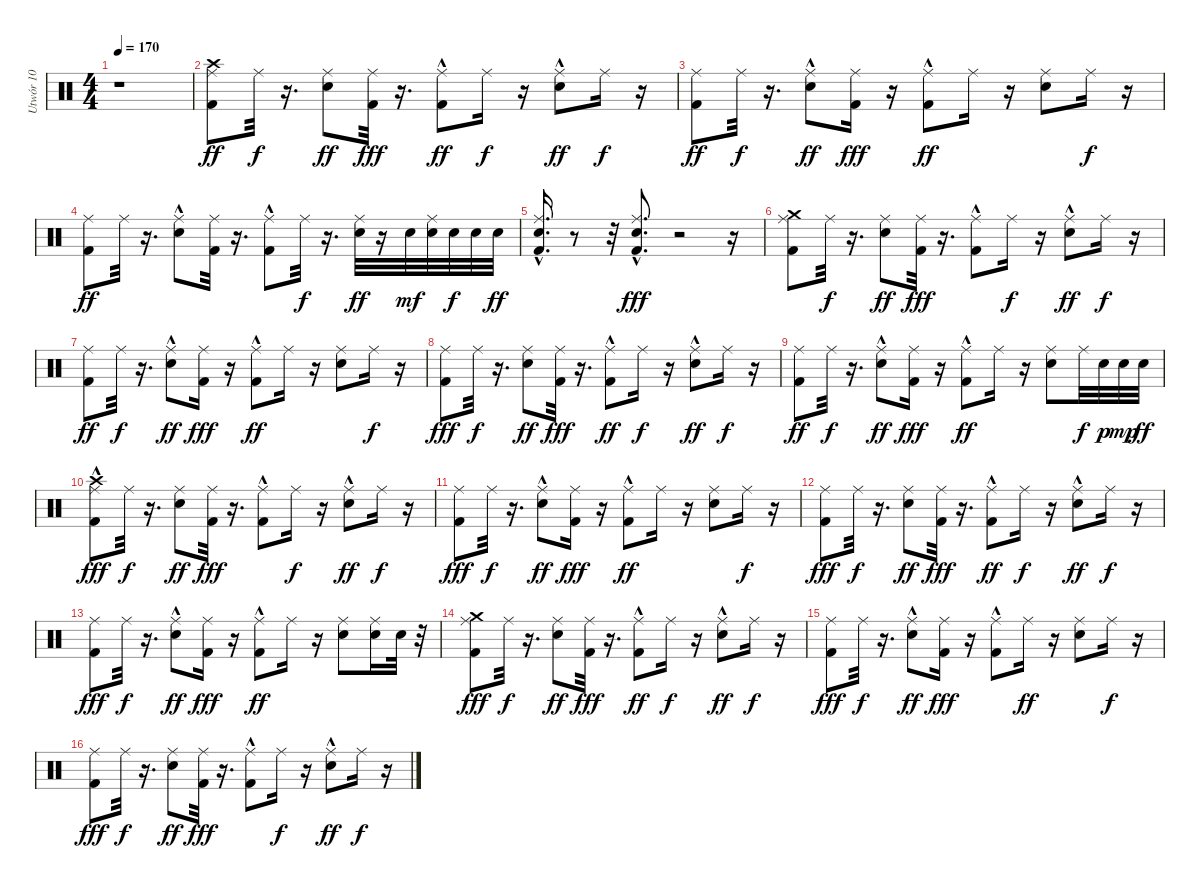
\track ("Utwór 10" "Utwór 10") {instrument percussion}
\staff {score}
\articulation defaults
\ts (4 4)
\tempo 170
\clef neutral
\ks c
r.1{dy ff} |
("Kick (hit) 2" "Crash high (hit)" "Ride (middle)").8 "Ride (middle)".32{dy f} r.16{d} ("Snare (hit) 2" "Ride (middle)").8{dy ff} ("Kick (hit) 2" "Ride (middle)").32{dy fff} r.16{d} ("Kick (hit) 2"{hac} "Ride (middle)").8{dy ff} "Ride (middle)".16{dy f} r.16 ("Ride (middle)" "Snare (hit) 2"{hac}).8{dy ff} "Ride (middle)".16{dy f} r.16 |
("Kick (hit) 2" "Ride (middle)").8{dy ff} "Ride (middle)".32{dy f} r.16{d} ("Snare (hit) 2"{hac} "Ride (middle)").8{dy ff} ("Kick (hit) 2" "Ride (middle)").16{dy fff} r.16 ("Kick (hit) 2"{hac} "Ride (middle)").8{dy ff} "Ride (middle)".16 r.16 ("Snare (hit) 2" "Ride (middle)").8 "Ride (middle)".16{dy f} r.16 |
("Kick (hit) 2" "Ride (middle)").8{dy ff} "Ride (middle)".32 r.16{d} ("Ride (middle)" "Snare (hit) 2"{hac}).8 ("Kick (hit) 2" "Ride (middle)").32 r.16{d} ("Kick (hit) 2"{hac} "Ride (middle)").8 "Ride (middle)".32{dy f} r.16{d} ("Snare (hit) 2" "Ride (middle)").32{dy ff} r.16 "Snare (hit) 2".32{dy mf} ("Snare (hit) 2" "Ride (middle)").32 "Snare (hit) 2".32{dy f} "Snare (hit) 2".32 "Snare (hit) 2".32{dy ff} |
("Kick (hit) 2"{hac} "Ride (middle)" "Snare (hit) 2").16{d} r.8 r.32 ("Ride (middle)" "Snare (hit) 2" "Kick (hit) 2"{hac}).8{d dy fff} r.2 r.16 |
("Kick (hit) 2" "Crash medium (hit)" "Ride (middle)").8 "Ride (middle)".32{dy f} r.16{d} ("Snare (hit) 2" "Ride (middle)").8{dy ff} ("Ride (middle)" "Kick (hit) 2").32{dy fff} r.16{d} ("Ride (middle)" "Kick (hit) 2"{hac}).8 "Ride (middle)".16{dy f} r.16 ("Snare (hit) 2"{hac} "Ride (middle)").8{dy ff} "Ride (middle)".16{dy f} r.16 |
("Kick (hit) 2" "Ride (middle)").8{dy ff} "Ride (middle)".32{dy f} r.16{d} ("Ride (middle)" "Snare (hit) 2"{hac}).8{dy ff} ("Ride (middle)" "Kick (hit) 2").16{dy fff} r.16 ("Kick (hit) 2"{hac} "Ride (middle)").8{dy ff} "Ride (middle)".16 r.16 ("Snare (hit) 2" "Ride (middle)").8 "Ride (middle)".16{dy f} r.16 |
("Kick (hit) 2" "Ride (middle)").8{dy fff} "Ride (middle)".32{dy f} r.16{d} ("Ride (middle)" "Snare (hit) 2").8{dy ff} ("Kick (hit) 2" "Ride (middle)").32{dy fff} r.16{d} ("Kick (hit) 2"{hac} "Ride (middle)").8{dy ff} "Ride (middle)".16{dy f} r.16 ("Ride (middle)" "Snare (hit) 2"{hac}).8{dy ff} "Ride (middle)".16{dy f} r.16 |
("Kick (hit) 2" "Ride (middle)").8{dy ff} "Ride (middle)".32{dy f} r.16{d} ("Snare (hit) 2"{hac} "Ride (middle)").8{dy ff} ("Ride (middle)" "Kick (hit) 2").16{dy fff} r.16 ("Kick (hit) 2"{hac} "Ride (middle)").8{dy ff} "Ride (middle)".16 r.16 ("Ride (middle)" "Snare (hit) 2").8 "Ride (middle)".32{dy f} "Snare (hit) 2".32{dy p} "Snare (hit) 2".32{dy mp} "Snare (hit) 2".32{dy ff} |
("Crash high (hit)"{hac} "Kick (hit) 2" "Ride (middle)").8{dy fff} "Ride (middle)".32{dy f} r.16{d} ("Snare (hit) 2" "Ride (middle)").8{dy ff} ("Kick (hit) 2" "Ride (middle)").32{dy fff} r.16{d} ("Ride (middle)" "Kick (hit) 2"{hac}).8 "Ride (middle)".16{dy f} r.16 ("Ride (middle)" "Snare (hit) 2"{hac}).8{dy ff} "Ride (middle)".16{dy f} r.16 |
("Ride (middle)" "Kick (hit) 2").8{dy fff} "Ride (middle)".32{dy f} r.16{d} ("Ride (middle)" "Snare (hit) 2"{hac}).8{dy ff} ("Kick (hit) 2" "Ride (middle)").16{dy fff} r.16 ("Kick (hit) 2"{hac} "Ride (middle)").8{dy ff} "Ride (middle)".16 r.16 ("Snare (hit) 2" "Ride (middle)").8 "Ride (middle)".16{dy f} r.16 |
("Ride (middle)" "Kick (hit) 2").8{dy fff} "Ride (middle)".32{dy f} r.16{d} ("Ride (middle)" "Snare (hit) 2").8{dy ff} ("Kick (hit) 2" "Ride (middle)").32{dy fff} r.16{d} ("Kick (hit) 2"{hac} "Ride (middle)").8{dy ff} "Ride (middle)".16{dy f} r.16 ("Snare (hit) 2"{hac} "Ride (middle)").8{dy ff} "Ride (middle)".16{dy f} r.16 |
("Ride (middle)" "Kick (hit) 2").8{dy fff} "Ride (middle)".32{dy f} r.16{d} ("Snare (hit) 2"{hac} "Ride (middle)").8{dy ff} ("Kick (hit) 2" "Ride (middle)").16{dy fff} r.16 ("Kick (hit) 2"{hac} "Ride (middle)").8{dy ff} "Ride (middle)".16 r.16 ("Ride (middle)" "Snare (hit) 2").8 ("Snare (hit) 2" "Ride (middle)").16 "Snare (hit) 2".32 r.32 |
("Crash medium (hit)" "Kick (hit) 2" "Ride (middle)").8{dy fff} "Ride (middle)".32{dy f} r.16{d} ("Ride (middle)" "Snare (hit) 2").8{dy ff} ("Ride (middle)" "Kick (hit) 2").32{dy fff} r.16{d} ("Kick (hit) 2"{hac} "Ride (middle)").8{dy ff} "Ride (middle)".16{dy f} r.16 ("Ride (middle)" "Snare (hit) 2"{hac}).8{dy ff} "Ride (middle)".16{dy f} r.16 |
("Ride (middle)" "Kick (hit) 2").8{dy fff} "Ride (middle)".32{dy f} r.16{d} ("Snare (hit) 2"{hac} "Ride (middle)").8{dy ff} ("Ride (middle)" "Kick (hit) 2").16{dy fff} r.16 ("Ride (middle)" "Kick (hit) 2"{hac}).8 "Ride (middle)".16{dy ff} r.16 ("Ride (middle)" "Snare (hit) 2").8 "Ride (middle)".16{dy f} r.16 |
("Kick (hit) 2" "Ride (middle)").8{dy fff} "Ride (middle)".32{dy f} r.16{d} ("Ride (middle)" "Snare (hit) 2").8{dy ff} ("Ride (middle)" "Kick (hit) 2").32{dy fff} r.16{d} ("Ride (middle)" "Kick (hit) 2"{hac}).8 "Ride (middle)".16{dy f} r.16 ("Ride (middle)" "Snare (hit) 2"{hac}).8{dy ff} "Ride (middle)".16{dy f} r.16
